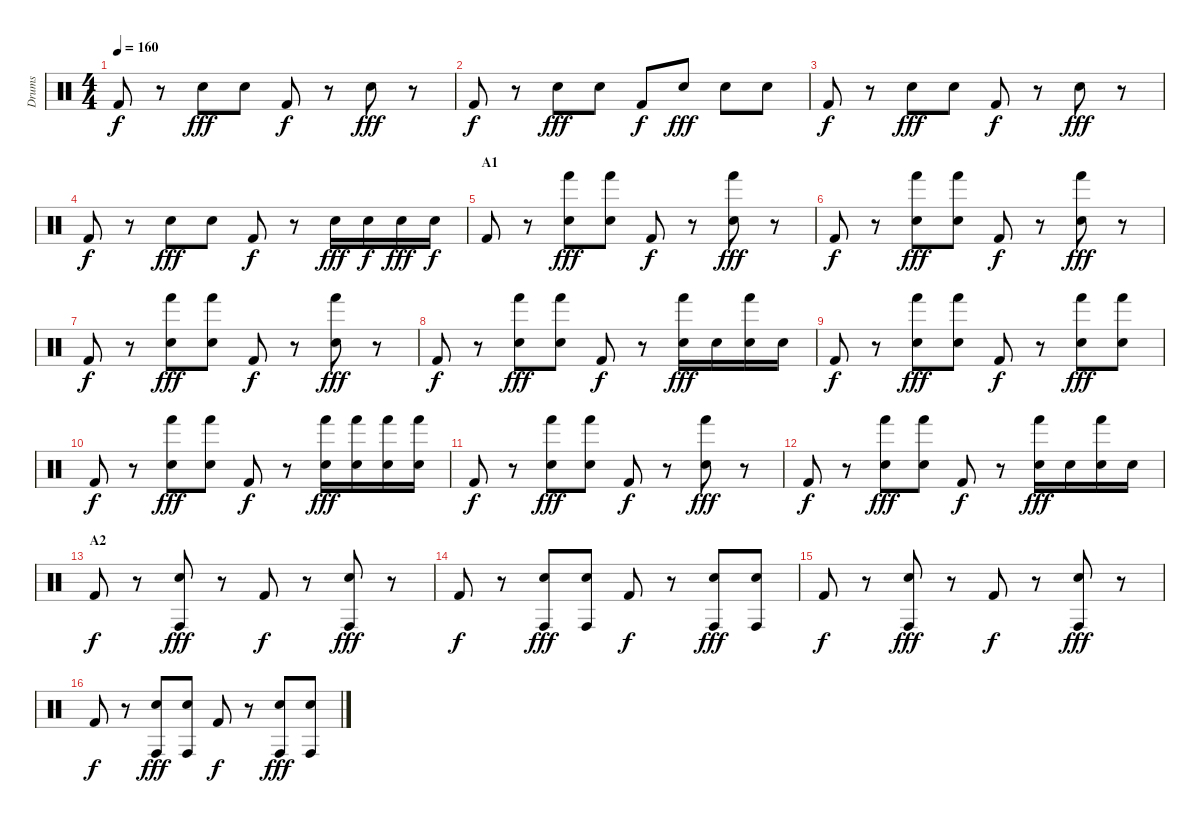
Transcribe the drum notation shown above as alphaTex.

\track ("Drums" "Drums") {instrument percussion}
\staff {score}
\articulation defaults
\ts (4 4)
\tempo 160
\clef neutral
\ks c "Kick (hit) 2".8{dy f}
r.8 "Electric Snare (hit)".8{dy fff} "Electric Snare (hit)".8 "Kick (hit) 2".8{dy f} r.8 "Electric Snare (hit)".8{dy fff} r.8 |
"Kick (hit) 2".8{dy f} r.8 "Electric Snare (hit)".8{dy fff} "Electric Snare (hit)".8 "Kick (hit) 2".8{dy f} "Electric Snare (hit)".8{dy fff} "Electric Snare (hit)".8 "Electric Snare (hit)".8 |
"Kick (hit) 2".8{dy f} r.8 "Electric Snare (hit)".8{dy fff} "Electric Snare (hit)".8 "Kick (hit) 2".8{dy f} r.8 "Electric Snare (hit)".8{dy fff} r.8 |
"Kick (hit) 2".8{dy f} r.8 "Electric Snare (hit)".8{dy fff} "Electric Snare (hit)".8 "Kick (hit) 2".8{dy f} r.8 "Electric Snare (hit)".16{dy fff} "Electric Snare (hit)".16{dy f} "Electric Snare (hit)".16{dy fff} "Electric Snare (hit)".16{dy f} |
\section ("" "A1")
"Kick (hit) 2".8 r.8 ("Hand (hit)" "Electric Snare (hit)").8{dy fff} ("Hand (hit)" "Electric Snare (hit)").8 "Kick (hit) 2".8{dy f} r.8 ("Hand (hit)" "Electric Snare (hit)").8{dy fff} r.8 |
"Kick (hit) 2".8{dy f} r.8 ("Hand (hit)" "Electric Snare (hit)").8{dy fff} ("Hand (hit)" "Electric Snare (hit)").8 "Kick (hit) 2".8{dy f} r.8 ("Hand (hit)" "Electric Snare (hit)").8{dy fff} r.8 |
"Kick (hit) 2".8{dy f} r.8 ("Hand (hit)" "Electric Snare (hit)").8{dy fff} ("Hand (hit)" "Electric Snare (hit)").8 "Kick (hit) 2".8{dy f} r.8 ("Hand (hit)" "Electric Snare (hit)").8{dy fff} r.8 |
"Kick (hit) 2".8{dy f} r.8 ("Hand (hit)" "Electric Snare (hit)").8{dy fff} ("Hand (hit)" "Electric Snare (hit)").8 "Kick (hit) 2".8{dy f} r.8 ("Hand (hit)" "Electric Snare (hit)").16{dy fff} "Electric Snare (hit)".16 ("Hand (hit)" "Electric Snare (hit)").16 "Electric Snare (hit)".16 |
"Kick (hit) 2".8{dy f} r.8 ("Hand (hit)" "Electric Snare (hit)").8{dy fff} ("Hand (hit)" "Electric Snare (hit)").8 "Kick (hit) 2".8{dy f} r.8 ("Hand (hit)" "Electric Snare (hit)").8{dy fff} ("Hand (hit)" "Electric Snare (hit)").8 |
"Kick (hit) 2".8{dy f} r.8 ("Hand (hit)" "Electric Snare (hit)").8{dy fff} ("Hand (hit)" "Electric Snare (hit)").8 "Kick (hit) 2".8{dy f} r.8 ("Hand (hit)" "Electric Snare (hit)").16{dy fff} ("Hand (hit)" "Electric Snare (hit)").16 ("Hand (hit)" "Electric Snare (hit)").16 ("Hand (hit)" "Electric Snare (hit)").16 |
"Kick (hit) 2".8{dy f} r.8 ("Hand (hit)" "Electric Snare (hit)").8{dy fff} ("Hand (hit)" "Electric Snare (hit)").8 "Kick (hit) 2".8{dy f} r.8 ("Hand (hit)" "Electric Snare (hit)").8{dy fff} r.8 |
"Kick (hit) 2".8{dy f} r.8 ("Hand (hit)" "Electric Snare (hit)").8{dy fff} ("Hand (hit)" "Electric Snare (hit)").8 "Kick (hit) 2".8{dy f} r.8 ("Hand (hit)" "Electric Snare (hit)").16{dy fff} "Electric Snare (hit)".16 ("Hand (hit)" "Electric Snare (hit)").16 "Electric Snare (hit)".16 |
\section ("" "A2")
"Kick (hit) 2".8{dy f} r.8 ("Conga high (hit)" "Electric Snare (hit)").8{dy fff} r.8 "Kick (hit) 2".8{dy f} r.8 ("Conga high (hit)" "Electric Snare (hit)").8{dy fff} r.8 |
"Kick (hit) 2".8{dy f} r.8 ("Conga high (hit)" "Electric Snare (hit)").8{dy fff} ("Conga high (hit)" "Electric Snare (hit)").8 "Kick (hit) 2".8{dy f} r.8 ("Conga high (hit)" "Electric Snare (hit)").8{dy fff} ("Conga high (hit)" "Electric Snare (hit)").8 |
"Kick (hit) 2".8{dy f} r.8 ("Conga high (hit)" "Electric Snare (hit)").8{dy fff} r.8 "Kick (hit) 2".8{dy f} r.8 ("Conga high (hit)" "Electric Snare (hit)").8{dy fff} r.8 |
"Kick (hit) 2".8{dy f} r.8 ("Conga high (hit)" "Electric Snare (hit)").8{dy fff} ("Conga high (hit)" "Electric Snare (hit)").8 "Kick (hit) 2".8{dy f} r.8 ("Conga high (hit)" "Electric Snare (hit)").8{dy fff} ("Conga high (hit)" "Electric Snare (hit)").8
